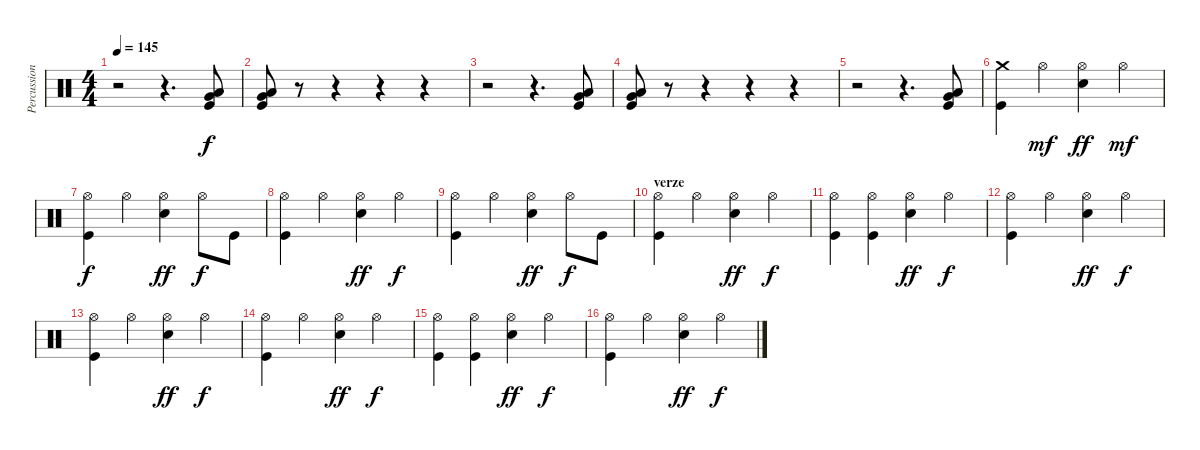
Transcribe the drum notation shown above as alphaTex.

\track ("Percussion" "Percussion") {instrument percussion}
\staff {score}
\articulation defaults
\ts (4 4)
\tempo 145
\clef neutral
\ks c
r.2{dy f} r.4{d} ("Kick (hit)" "Low Tom (hit)" "Very Low Tom (hit)").8 |
("Kick (hit)" "Low Tom (hit)" "Very Low Tom (hit)").8 r.8 r.4 r.4 r.4 |
r.2 r.4{d} ("Kick (hit)" "Low Tom (hit)" "Very Low Tom (hit)").8 |
("Kick (hit)" "Low Tom (hit)" "Very Low Tom (hit)").8 r.8 r.4 r.4 r.4 |
r.2 r.4{d} ("Kick (hit)" "Low Tom (hit)" "Very Low Tom (hit)").8 |
("Crash medium (hit)" "Kick (hit)").4 "Hi-Hat (open)".4{dy mf} ("Hi-Hat (open)" "Snare (hit) 2").4{dy ff} "Hi-Hat (open)".4{dy mf} |
("Hi-Hat (open)" "Kick (hit)").4{dy f} "Hi-Hat (open)".4 ("Hi-Hat (open)" "Snare (hit) 2").4{dy ff} "Hi-Hat (open)".8{dy f} "Kick (hit)".8 |
("Hi-Hat (open)" "Kick (hit)").4 "Hi-Hat (open)".4 ("Hi-Hat (open)" "Snare (hit) 2").4{dy ff} "Hi-Hat (open)".4{dy f} |
("Hi-Hat (open)" "Kick (hit)").4 "Hi-Hat (open)".4 ("Hi-Hat (open)" "Snare (hit) 2").4{dy ff} "Hi-Hat (open)".8{dy f} "Kick (hit)".8 |
\section ("" "verze")
("Hi-Hat (open)" "Kick (hit)").4 "Hi-Hat (open)".4 ("Hi-Hat (open)" "Snare (hit) 2").4{dy ff} "Hi-Hat (open)".4{dy f} |
("Hi-Hat (open)" "Kick (hit)").4 ("Hi-Hat (open)" "Kick (hit)").4 ("Hi-Hat (open)" "Snare (hit) 2").4{dy ff} "Hi-Hat (open)".4{dy f} |
("Hi-Hat (open)" "Kick (hit)").4 "Hi-Hat (open)".4 ("Hi-Hat (open)" "Snare (hit) 2").4{dy ff} "Hi-Hat (open)".4{dy f} |
("Hi-Hat (open)" "Kick (hit)").4 "Hi-Hat (open)".4 ("Hi-Hat (open)" "Snare (hit) 2").4{dy ff} "Hi-Hat (open)".4{dy f} |
("Hi-Hat (open)" "Kick (hit)").4 "Hi-Hat (open)".4 ("Hi-Hat (open)" "Snare (hit) 2").4{dy ff} "Hi-Hat (open)".4{dy f} |
("Hi-Hat (open)" "Kick (hit)").4 ("Hi-Hat (open)" "Kick (hit)").4 ("Hi-Hat (open)" "Snare (hit) 2").4{dy ff} "Hi-Hat (open)".4{dy f} |
("Hi-Hat (open)" "Kick (hit)").4 "Hi-Hat (open)".4 ("Hi-Hat (open)" "Snare (hit) 2").4{dy ff} "Hi-Hat (open)".4{dy f}
